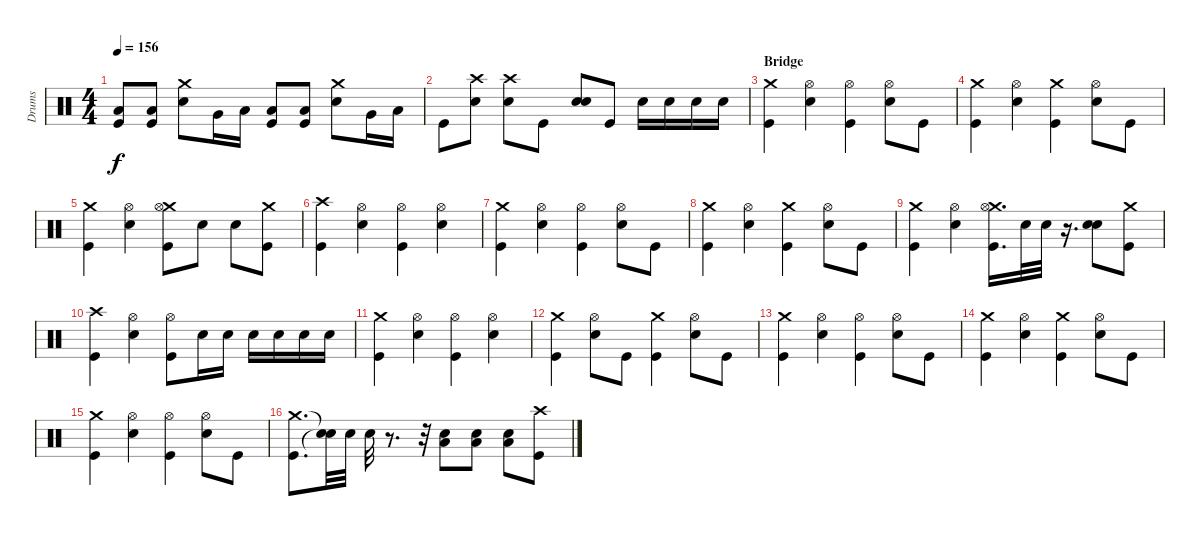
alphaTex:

\track ("Drums" "Drums") {instrument percussion}
\staff {score}
\articulation defaults
\ts (4 4)
\tempo 156
\clef neutral
\ks c
("Low Floor Tom (hit)" "Kick (hit)").8{dy f} ("Low Floor Tom (hit)" "Kick (hit)").8 ("Crash medium (hit)" "Electric Snare (hit)").8 "Very Low Tom (hit)".16 "Low Floor Tom (hit)".16 ("Low Floor Tom (hit)" "Kick (hit)").8 ("Low Floor Tom (hit)" "Kick (hit)").8 ("Crash medium (hit)" "Electric Snare (hit)").8 "Very Low Tom (hit)".16 "Low Floor Tom (hit)".16 |
"Kick (hit)".8 ("Crash high (hit)" "Electric Snare (hit)").8 ("Crash high (hit)" "Electric Snare (hit)").8 "Kick (hit)".8 ("Electric Snare (hit)" "Electric Snare (hit)").8 "Kick (hit)".8 "Electric Snare (hit)".16 "Electric Snare (hit)".16 "Electric Snare (hit)".16 "Electric Snare (hit)".16 |
\section ("" "Bridge")
("Kick (hit)" "Crash medium (hit)").4 ("Electric Snare (hit)" "Hi-Hat (open)").4 ("Kick (hit)" "Hi-Hat (open)").4 ("Electric Snare (hit)" "Hi-Hat (open)").8 "Kick (hit)".8 |
("Kick (hit)" "Crash medium (hit)").4 ("Electric Snare (hit)" "Hi-Hat (open)").4 ("Kick (hit)" "Crash medium (hit)").4 ("Electric Snare (hit)" "Hi-Hat (open)").8 "Kick (hit)".8 |
("Kick (hit)" "Crash medium (hit)").4 ("Hi-Hat (open)" "Electric Snare (hit)").4 ("Crash medium (hit)" "Kick (hit)" "Hi-Hat (open)").8 "Electric Snare (hit)".8 "Electric Snare (hit)".8 ("Crash medium (hit)" "Kick (hit)").8 |
("Kick (hit)" "Crash high (hit)").4 ("Electric Snare (hit)" "Hi-Hat (open)").4 ("Kick (hit)" "Hi-Hat (open)").4 ("Electric Snare (hit)" "Hi-Hat (open)").4 |
("Kick (hit)" "Crash medium (hit)").4 ("Electric Snare (hit)" "Hi-Hat (open)").4 ("Kick (hit)" "Hi-Hat (open)").4 ("Electric Snare (hit)" "Hi-Hat (open)").8 "Kick (hit)".8 |
("Kick (hit)" "Crash medium (hit)").4 ("Electric Snare (hit)" "Hi-Hat (open)").4 ("Kick (hit)" "Crash medium (hit)").4 ("Electric Snare (hit)" "Hi-Hat (open)").8 "Kick (hit)".8 |
("Kick (hit)" "Crash medium (hit)").4 ("Hi-Hat (open)" "Electric Snare (hit)").4 ("Crash medium (hit)" "Kick (hit)" "Hi-Hat (open)").16{d} "Electric Snare (hit)".32 "Electric Snare (hit)".32 r.16{d} ("Electric Snare (hit)" "Electric Snare (hit)").8 ("Crash medium (hit)" "Kick (hit)").8 |
("Kick (hit)" "Crash high (hit)").4 ("Hi-Hat (open)" "Electric Snare (hit)").4 ("Hi-Hat (open)" "Kick (hit)").8 "Electric Snare (hit)".16 "Electric Snare (hit)".16 "Electric Snare (hit)".16 "Electric Snare (hit)".16 "Electric Snare (hit)".16 "Electric Snare (hit)".16 |
("Kick (hit)" "Crash medium (hit)").4 ("Electric Snare (hit)" "Hi-Hat (open)").4 ("Kick (hit)" "Hi-Hat (open)").4 ("Electric Snare (hit)" "Hi-Hat (open)").4 |
("Kick (hit)" "Crash medium (hit)").4 ("Electric Snare (hit)" "Hi-Hat (open)").8 "Kick (hit)".8 ("Kick (hit)" "Crash medium (hit)").4 ("Electric Snare (hit)" "Hi-Hat (open)").8 "Kick (hit)".8 |
("Kick (hit)" "Crash medium (hit)").4 ("Electric Snare (hit)" "Hi-Hat (open)").4 ("Kick (hit)" "Hi-Hat (open)").4 ("Electric Snare (hit)" "Hi-Hat (open)").8 "Kick (hit)".8 |
("Kick (hit)" "Crash medium (hit)").4 ("Electric Snare (hit)" "Hi-Hat (open)").4 ("Kick (hit)" "Crash medium (hit)").4 ("Electric Snare (hit)" "Hi-Hat (open)").8 "Kick (hit)".8 |
("Kick (hit)" "Crash medium (hit)").4 ("Electric Snare (hit)" "Hi-Hat (open)").4 ("Kick (hit)" "Hi-Hat (open)").4 ("Electric Snare (hit)" "Hi-Hat (open)").8 "Kick (hit)".8 |
("Kick (hit)" "Crash medium (hit)").8{d} ("Snare (hit)"{t} "Snare (hit)"{t}).32 "Electric Snare (hit)".32 "Electric Snare (hit)".32 r.8{d} r.32 ("Electric Snare (hit)" "Low Tom (hit)").8 ("Low Tom (hit)" "Electric Snare (hit)").8 ("Electric Snare (hit)" "Low Tom (hit)").8 ("Crash high (hit)" "Kick (hit)").8
